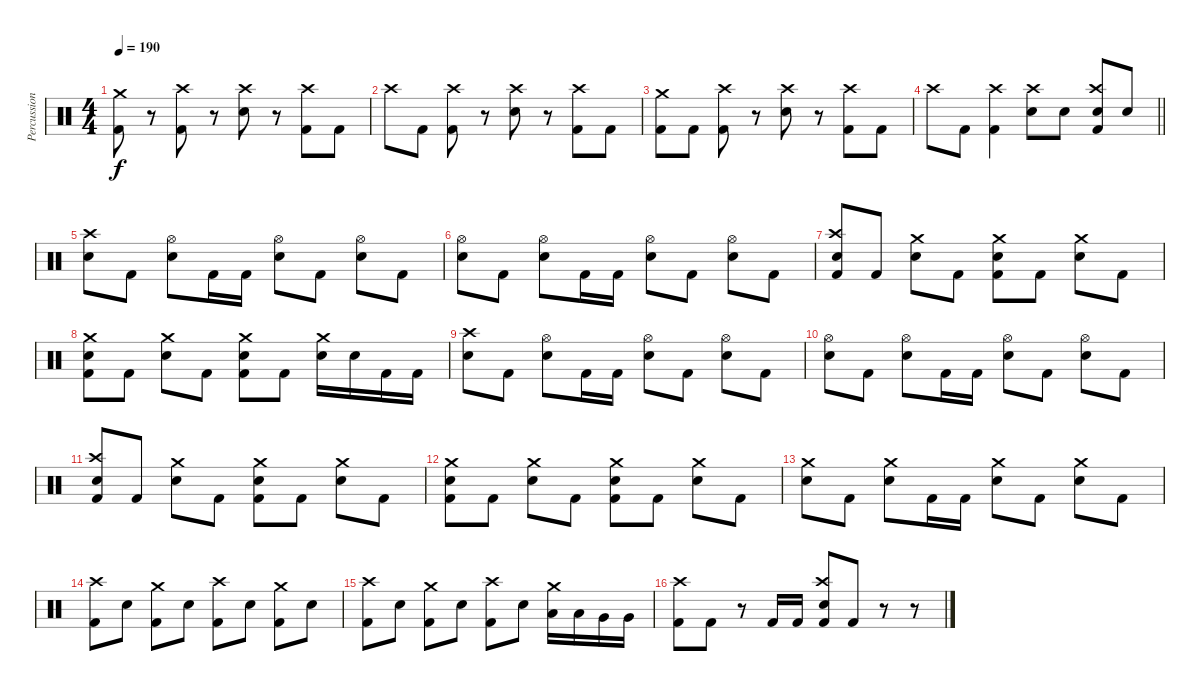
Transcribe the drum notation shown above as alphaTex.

\track ("Percussion" "Percussion") {instrument percussion}
\staff {score}
\articulation defaults
\ts (4 4)
\tempo 190
\clef neutral
\ks c
("Crash medium (hit)" "Kick (hit) 2").8{dy f} r.8 ("Crash high (hit)" "Kick (hit) 2").8 r.8 ("Crash high (hit)" "Electric Snare (hit)").8 r.8 ("Crash high (hit)" "Kick (hit) 2").8 "Kick (hit) 2".8 |
"Crash high (hit)".8 "Kick (hit) 2".8 ("Crash high (hit)" "Kick (hit) 2").8 r.8 ("Crash high (hit)" "Electric Snare (hit)").8 r.8 ("Crash high (hit)" "Kick (hit) 2").8 "Kick (hit) 2".8 |
("Crash medium (hit)" "Kick (hit) 2").8 "Kick (hit) 2".8 ("Crash high (hit)" "Kick (hit) 2").8 r.8 ("Crash high (hit)" "Electric Snare (hit)").8 r.8 ("Crash high (hit)" "Kick (hit) 2").8 "Kick (hit) 2".8 |
\barLineRight lightlight "Crash high (hit)".8 "Kick (hit) 2".8
("Crash high (hit)" "Kick (hit) 2").4 ("Crash high (hit)" "Electric Snare (hit)").8 "Electric Snare (hit)".8 ("Crash high (hit)" "Electric Snare (hit)" "Kick (hit) 2").8 "Electric Snare (hit)".8 |
("Crash high (hit)" "Electric Snare (hit)").8 "Kick (hit) 2".8 ("Hi-Hat (open)" "Electric Snare (hit)").8 "Kick (hit) 2".16 "Kick (hit) 2".16 ("Hi-Hat (open)" "Electric Snare (hit)").8 "Kick (hit) 2".8 ("Hi-Hat (open)" "Electric Snare (hit)").8 "Kick (hit) 2".8 |
("Hi-Hat (open)" "Electric Snare (hit)").8 "Kick (hit) 2".8 ("Hi-Hat (open)" "Electric Snare (hit)").8 "Kick (hit) 2".16 "Kick (hit) 2".16 ("Hi-Hat (open)" "Electric Snare (hit)").8 "Kick (hit) 2".8 ("Hi-Hat (open)" "Electric Snare (hit)").8 "Kick (hit) 2".8 |
("Crash high (hit)" "Electric Snare (hit)" "Kick (hit) 2").8 "Kick (hit) 2".8 ("Crash medium (hit)" "Electric Snare (hit)").8 "Kick (hit) 2".8 ("Crash medium (hit)" "Electric Snare (hit)" "Kick (hit) 2").8 "Kick (hit) 2".8 ("Crash medium (hit)" "Electric Snare (hit)").8 "Kick (hit) 2".8 |
("Crash medium (hit)" "Electric Snare (hit)" "Kick (hit) 2").8 "Kick (hit) 2".8 ("Crash medium (hit)" "Electric Snare (hit)").8 "Kick (hit) 2".8 ("Crash medium (hit)" "Electric Snare (hit)" "Kick (hit) 2").8 "Kick (hit) 2".8 ("Crash medium (hit)" "Electric Snare (hit)").16 "Electric Snare (hit)".16 "Kick (hit) 2".16 "Kick (hit) 2".16 |
("Crash high (hit)" "Electric Snare (hit)").8 "Kick (hit) 2".8 ("Hi-Hat (open)" "Electric Snare (hit)").8 "Kick (hit) 2".16 "Kick (hit) 2".16 ("Hi-Hat (open)" "Electric Snare (hit)").8 "Kick (hit) 2".8 ("Hi-Hat (open)" "Electric Snare (hit)").8 "Kick (hit) 2".8 |
("Hi-Hat (open)" "Electric Snare (hit)").8 "Kick (hit) 2".8 ("Hi-Hat (open)" "Electric Snare (hit)").8 "Kick (hit) 2".16 "Kick (hit) 2".16 ("Hi-Hat (open)" "Electric Snare (hit)").8 "Kick (hit) 2".8 ("Hi-Hat (open)" "Electric Snare (hit)").8 "Kick (hit) 2".8 |
("Crash high (hit)" "Electric Snare (hit)" "Kick (hit) 2").8 "Kick (hit) 2".8 ("Crash medium (hit)" "Electric Snare (hit)").8 "Kick (hit) 2".8 ("Crash medium (hit)" "Electric Snare (hit)" "Kick (hit) 2").8 "Kick (hit) 2".8 ("Crash medium (hit)" "Electric Snare (hit)").8 "Kick (hit) 2".8 |
("Crash medium (hit)" "Electric Snare (hit)" "Kick (hit) 2").8 "Kick (hit) 2".8 ("Crash medium (hit)" "Electric Snare (hit)").8 "Kick (hit) 2".8 ("Crash medium (hit)" "Electric Snare (hit)" "Kick (hit) 2").8 "Kick (hit) 2".8 ("Crash medium (hit)" "Electric Snare (hit)").8 "Kick (hit) 2".8 |
("Crash medium (hit)" "Electric Snare (hit)").8 "Kick (hit) 2".8 ("Crash medium (hit)" "Electric Snare (hit)").8 "Kick (hit) 2".16 "Kick (hit) 2".16 ("Crash medium (hit)" "Electric Snare (hit)").8 "Kick (hit) 2".8 ("Crash medium (hit)" "Electric Snare (hit)").8 "Kick (hit) 2".8 |
("Crash high (hit)" "Kick (hit) 2").8 "Electric Snare (hit)".8 ("Crash medium (hit)" "Kick (hit) 2").8 "Electric Snare (hit)".8 ("Crash high (hit)" "Kick (hit) 2").8 "Electric Snare (hit)".8 ("Crash medium (hit)" "Kick (hit) 2").8 "Electric Snare (hit)".8 |
("Crash high (hit)" "Kick (hit) 2").8 "Electric Snare (hit)".8 ("Crash medium (hit)" "Kick (hit) 2").8 "Electric Snare (hit)".8 ("Crash high (hit)" "Kick (hit) 2").8 "Electric Snare (hit)".8 ("Crash medium (hit)" "Low Tom (hit)").16 "Low Tom (hit)".16 "Very Low Tom (hit)".16 "Very Low Tom (hit)".16 |
("Crash high (hit)" "Kick (hit) 2").8 "Kick (hit) 2".8 r.8 "Kick (hit) 2".16 "Kick (hit) 2".16 ("Crash high (hit)" "Electric Snare (hit)" "Kick (hit) 2").8 "Kick (hit) 2".8 r.8 r.8
